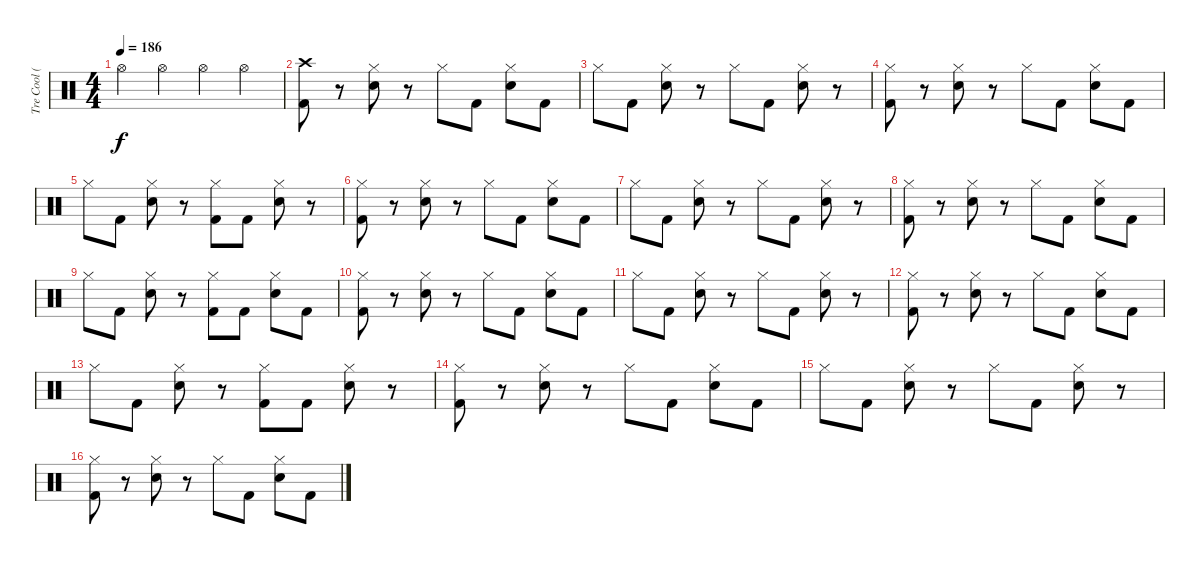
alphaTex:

\track ("Tre Cool (Drums)" "Tre Cool (") {instrument percussion}
\staff {score}
\articulation defaults
\ts (4 4)
\tempo 186
\clef neutral
\ks c "Hi-Hat (open)".4{dy f} "Hi-Hat (open)".4 "Hi-Hat (open)".4 "Hi-Hat (open)".4
|
("Crash high (hit)" "Kick (hit) 2").8 r.8 ("Hi-Hat (closed)" "Snare (hit) 2").8 r.8 "Hi-Hat (closed)".8 "Kick (hit) 2".8 ("Hi-Hat (closed)" "Snare (hit) 2").8 "Kick (hit) 2".8 |
"Hi-Hat (closed)".8 "Kick (hit) 2".8 ("Hi-Hat (closed)" "Snare (hit) 2").8 r.8 "Hi-Hat (closed)".8 "Kick (hit) 2".8 ("Hi-Hat (closed)" "Snare (hit) 2").8 r.8 |
("Hi-Hat (closed)" "Kick (hit) 2").8 r.8 ("Hi-Hat (closed)" "Snare (hit) 2").8 r.8 "Hi-Hat (closed)".8 "Kick (hit) 2".8 ("Snare (hit) 2" "Hi-Hat (closed)").8 "Kick (hit) 2".8 |
"Hi-Hat (closed)".8 "Kick (hit) 2".8 ("Hi-Hat (closed)" "Snare (hit) 2").8 r.8 ("Hi-Hat (closed)" "Kick (hit) 2").8 "Kick (hit) 2".8 ("Hi-Hat (closed)" "Snare (hit) 2").8 r.8 |
("Kick (hit) 2" "Hi-Hat (closed)").8 r.8 ("Snare (hit) 2" "Hi-Hat (closed)").8 r.8 "Hi-Hat (closed)".8 "Kick (hit) 2".8 ("Snare (hit) 2" "Hi-Hat (closed)").8 "Kick (hit) 2".8 |
"Hi-Hat (closed)".8 "Kick (hit) 2".8 ("Snare (hit) 2" "Hi-Hat (closed)").8 r.8 "Hi-Hat (closed)".8 "Kick (hit) 2".8 ("Snare (hit) 2" "Hi-Hat (closed)").8 r.8 |
("Kick (hit) 2" "Hi-Hat (closed)").8 r.8 ("Snare (hit) 2" "Hi-Hat (closed)").8 r.8 "Hi-Hat (closed)".8 "Kick (hit) 2".8 ("Snare (hit) 2" "Hi-Hat (closed)").8 "Kick (hit) 2".8 |
"Hi-Hat (closed)".8 "Kick (hit) 2".8 ("Snare (hit) 2" "Hi-Hat (closed)").8 r.8 ("Kick (hit) 2" "Hi-Hat (closed)").8 "Kick (hit) 2".8 ("Hi-Hat (closed)" "Snare (hit) 2").8 "Kick (hit) 2".8 |
("Hi-Hat (closed)" "Kick (hit) 2").8 r.8 ("Hi-Hat (closed)" "Snare (hit) 2").8 r.8 "Hi-Hat (closed)".8 "Kick (hit) 2".8 ("Hi-Hat (closed)" "Snare (hit) 2").8 "Kick (hit) 2".8 |
"Hi-Hat (closed)".8 "Kick (hit) 2".8 ("Hi-Hat (closed)" "Snare (hit) 2").8 r.8 "Hi-Hat (closed)".8 "Kick (hit) 2".8 ("Hi-Hat (closed)" "Snare (hit) 2").8 r.8 |
("Hi-Hat (closed)" "Kick (hit) 2").8 r.8 ("Hi-Hat (closed)" "Snare (hit) 2").8 r.8 "Hi-Hat (closed)".8 "Kick (hit) 2".8 ("Snare (hit) 2" "Hi-Hat (closed)").8 "Kick (hit) 2".8 |
"Hi-Hat (closed)".8 "Kick (hit) 2".8 ("Hi-Hat (closed)" "Snare (hit) 2").8 r.8 ("Hi-Hat (closed)" "Kick (hit) 2").8 "Kick (hit) 2".8 ("Hi-Hat (closed)" "Snare (hit) 2").8 r.8 |
("Hi-Hat (closed)" "Kick (hit) 2").8 r.8 ("Hi-Hat (closed)" "Snare (hit) 2").8 r.8 "Hi-Hat (closed)".8 "Kick (hit) 2".8 ("Hi-Hat (closed)" "Snare (hit) 2").8 "Kick (hit) 2".8 |
"Hi-Hat (closed)".8 "Kick (hit) 2".8 ("Hi-Hat (closed)" "Snare (hit) 2").8 r.8 "Hi-Hat (closed)".8 "Kick (hit) 2".8 ("Hi-Hat (closed)" "Snare (hit) 2").8 r.8 |
("Hi-Hat (closed)" "Kick (hit) 2").8 r.8 ("Hi-Hat (closed)" "Snare (hit) 2").8 r.8 "Hi-Hat (closed)".8 "Kick (hit) 2".8 ("Snare (hit) 2" "Hi-Hat (closed)").8 "Kick (hit) 2".8
